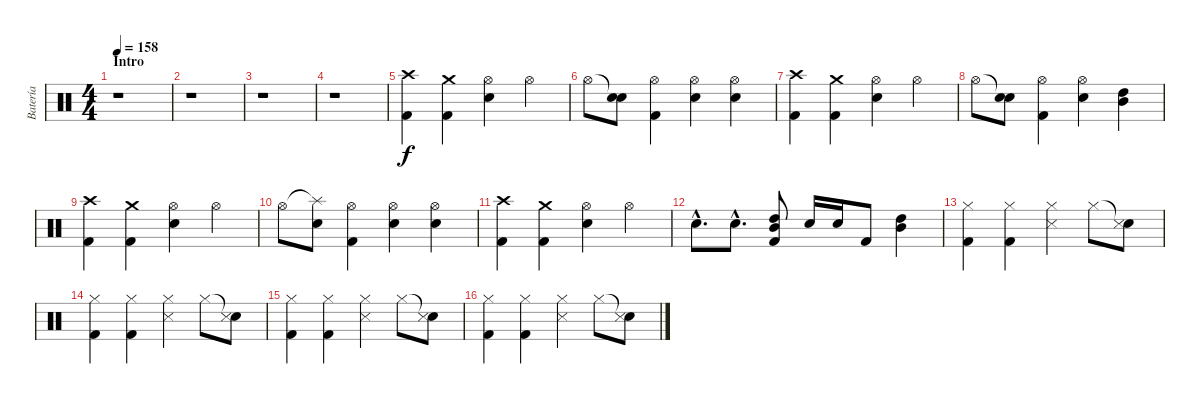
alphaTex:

\track ("Batería" "Batería") {instrument percussion}
\staff {score}
\articulation defaults
\ts (4 4)
\section ("" "Intro")
\tempo 158
\clef neutral
\ks c
r.1{dy f} |
r.1 |
r.1 |
r.1 |
("Crash high (hit)" "Kick (hit) 2").4 ("Crash medium (hit)" "Kick (hit) 2").4 ("Hi-Hat (open)" "Electric Snare (hit)").4 "Hi-Hat (open)".4 |
"Hi-Hat (open)".8 ("Snare (hit)"{t} "Electric Snare (hit)").8 ("Hi-Hat (open)" "Kick (hit) 2").4 ("Hi-Hat (open)" "Electric Snare (hit)").4 ("Hi-Hat (open)" "Electric Snare (hit)").4 |
("Crash high (hit)" "Kick (hit) 2").4 ("Crash medium (hit)" "Kick (hit) 2").4 ("Hi-Hat (open)" "Electric Snare (hit)").4 "Hi-Hat (open)".4 |
"Hi-Hat (open)".8 ("Snare (hit)"{t} "Electric Snare (hit)").8 ("Hi-Hat (open)" "Kick (hit) 2").4 ("Hi-Hat (open)" "Electric Snare (hit)").4 ("Mid Tom (hit)" "High Tom (hit)").4 |
("Crash high (hit)" "Kick (hit) 2").4 ("Crash medium (hit)" "Kick (hit) 2").4 ("Hi-Hat (open)" "Electric Snare (hit)").4 "Hi-Hat (open)".4 |
"Hi-Hat (open)".8 ("Splash (hit)"{t} "Electric Snare (hit)").8 ("Hi-Hat (open)" "Kick (hit) 2").4 ("Hi-Hat (open)" "Electric Snare (hit)").4 ("Hi-Hat (open)" "Electric Snare (hit)").4 |
("Crash high (hit)" "Kick (hit) 2").4 ("Crash medium (hit)" "Kick (hit) 2").4 ("Hi-Hat (open)" "Electric Snare (hit)").4 "Hi-Hat (open)".4 |
"Electric Snare (hit)"{hac}.8{d} "Electric Snare (hit)"{hac}.8{d} ("Mid Tom (hit)" "High Tom (hit)" "Kick (hit) 2").8 "Electric Snare (hit)".16 "Electric Snare (hit)".16 "Kick (hit) 2".8 ("Mid Tom (hit)" "High Tom (hit)").4 |
("Hi-Hat (closed)" "Kick (hit) 2").4 ("Hi-Hat (closed)" "Kick (hit) 2").4 ("Hi-Hat (closed)" "Snare (side stick) 3").4 "Hi-Hat (closed)".8 ("Snare (hit)"{t} "Snare (side stick) 3").8 |
("Hi-Hat (closed)" "Kick (hit) 2").4 ("Hi-Hat (closed)" "Kick (hit) 2").4 ("Hi-Hat (closed)" "Snare (side stick) 3").4 "Hi-Hat (closed)".8 ("Snare (hit)"{t} "Snare (side stick) 3").8 |
("Hi-Hat (closed)" "Kick (hit) 2").4 ("Hi-Hat (closed)" "Kick (hit) 2").4 ("Hi-Hat (closed)" "Snare (side stick) 3").4 "Hi-Hat (closed)".8 ("Snare (hit)"{t} "Snare (side stick) 3").8 |
("Hi-Hat (closed)" "Kick (hit) 2").4 ("Hi-Hat (closed)" "Kick (hit) 2").4 ("Hi-Hat (closed)" "Snare (side stick) 3").4 "Hi-Hat (closed)".8 ("Snare (hit)"{t} "Snare (side stick) 3").8
